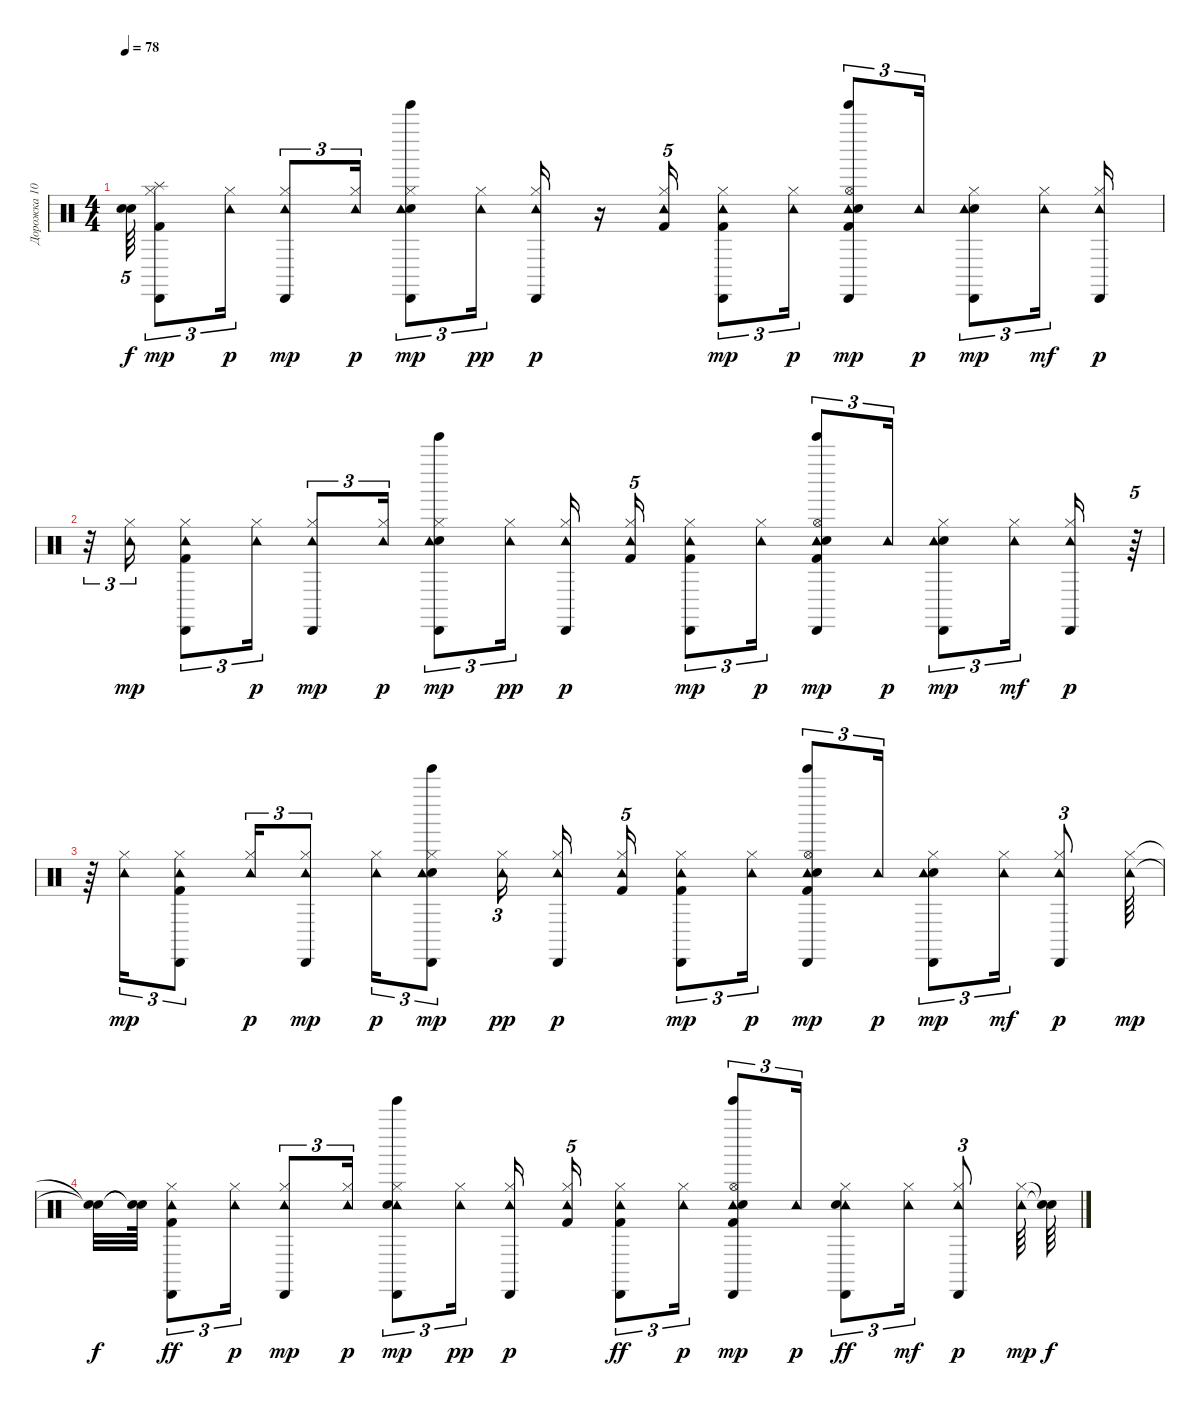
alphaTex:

\track ("Дорожка 10" "Дорожка 10") {instrument percussion}
\staff
\articulation defaults
\ts (4 4)
\tempo 78
\clef neutral
\ks c
("Snare (hit)"{t} "Snare (hit)"{t}).64{tu (5 4) dy f} ("Kick (hit) 2" "Splash (hit)" "Cabasa (hit)" "Hi-Hat (closed)").8{tu (3 2) dy mp} ("Tambourine (hit)" "Hi-Hat (closed)").16{tu (3 2) dy p} ("Cabasa (hit)" "Tambourine (hit)" "Hi-Hat (closed)").8{tu (3 2) dy mp} ("Tambourine (hit)" "Hi-Hat (closed)").16{tu (3 2) dy p} ("Snare (hit) 2" "Cabasa (hit)" "Tambourine (hit)" "Hi-Hat (closed)" "Tinkle Bell (hit)").8{tu (3 2) dy mp} ("Tambourine (hit)" "Hi-Hat (closed)").16{tu (3 2) dy pp} ("Cabasa (hit)" "Tambourine (hit)" "Hi-Hat (closed)").16{dy p} r.16 ("Kick (hit) 2" "Tambourine (hit)" "Hi-Hat (closed)").16{tu (5 4)} ("Kick (hit) 2" "Cabasa (hit)" "Tambourine (hit)" "Hi-Hat (closed)").8{tu (3 2) dy mp} ("Tambourine (hit)" "Hi-Hat (closed)").16{tu (3 2) dy p} ("Kick (hit) 2" "Hi-Hat (open)" "Cabasa (hit)" "Tambourine (hit)" "Electric Snare (hit)" "Tinkle Bell (hit)").8{tu (3 2) dy mp} "Tambourine (hit)".16{tu (3 2) dy p} ("Snare (hit) 2" "Cabasa (hit)" "Tambourine (hit)" "Hi-Hat (closed)").8{tu (3 2) dy mp} ("Tambourine (hit)" "Hi-Hat (closed)").16{tu (3 2) dy mf} ("Cabasa (hit)" "Tambourine (hit)" "Hi-Hat (closed)").16{dy p} |
r.32{tu (3 2)} ("Tambourine (hit)" "Hi-Hat (closed)").16{tu (3 2) dy mp} ("Kick (hit) 2" "Hi-Hat (closed)" "Cabasa (hit)" "Tambourine (hit)").8{tu (3 2)} ("Hi-Hat (closed)" "Tambourine (hit)").16{tu (3 2) dy p} ("Hi-Hat (closed)" "Cabasa (hit)" "Tambourine (hit)").8{tu (3 2) dy mp} ("Hi-Hat (closed)" "Tambourine (hit)").16{tu (3 2) dy p} ("Snare (hit) 2" "Hi-Hat (closed)" "Cabasa (hit)" "Tambourine (hit)" "Tinkle Bell (hit)").8{tu (3 2) dy mp} ("Hi-Hat (closed)" "Tambourine (hit)").16{tu (3 2) dy pp} ("Hi-Hat (closed)" "Cabasa (hit)" "Tambourine (hit)").16{dy p} ("Kick (hit) 2" "Hi-Hat (closed)" "Tambourine (hit)").16{tu (5 4)} ("Kick (hit) 2" "Hi-Hat (closed)" "Cabasa (hit)" "Tambourine (hit)").8{tu (3 2) dy mp} ("Hi-Hat (closed)" "Tambourine (hit)").16{tu (3 2) dy p} ("Kick (hit) 2" "Hi-Hat (open)" "Cabasa (hit)" "Tambourine (hit)" "Electric Snare (hit)" "Tinkle Bell (hit)").8{tu (3 2) dy mp} "Tambourine (hit)".16{tu (3 2) dy p} ("Snare (hit) 2" "Hi-Hat (closed)" "Cabasa (hit)" "Tambourine (hit)").8{tu (3 2) dy mp} ("Hi-Hat (closed)" "Tambourine (hit)").16{tu (3 2) dy mf} ("Hi-Hat (closed)" "Cabasa (hit)" "Tambourine (hit)").16{dy p} r.64{tu (5 4)} |
r.64 ("Hi-Hat (closed)" "Tambourine (hit)").16{tu (3 2) dy mp} ("Kick (hit) 2" "Hi-Hat (closed)" "Cabasa (hit)" "Tambourine (hit)").8{tu (3 2)} ("Hi-Hat (closed)" "Tambourine (hit)").16{tu (3 2) dy p} ("Hi-Hat (closed)" "Cabasa (hit)" "Tambourine (hit)").8{tu (3 2) dy mp} ("Hi-Hat (closed)" "Tambourine (hit)").16{tu (3 2) dy p} ("Snare (hit) 2" "Hi-Hat (closed)" "Cabasa (hit)" "Tambourine (hit)" "Tinkle Bell (hit)").8{tu (3 2) dy mp} ("Hi-Hat (closed)" "Tambourine (hit)").16{tu (3 2) dy pp beam splitsecondary} ("Hi-Hat (closed)" "Cabasa (hit)" "Tambourine (hit)").16{dy p} ("Kick (hit) 2" "Hi-Hat (closed)" "Tambourine (hit)").16{tu (5 4)} ("Kick (hit) 2" "Hi-Hat (closed)" "Cabasa (hit)" "Tambourine (hit)").8{tu (3 2) dy mp} ("Hi-Hat (closed)" "Tambourine (hit)").16{tu (3 2) dy p} ("Kick (hit) 2" "Hi-Hat (open)" "Cabasa (hit)" "Tambourine (hit)" "Electric Snare (hit)" "Tinkle Bell (hit)").8{tu (3 2) dy mp} "Tambourine (hit)".16{tu (3 2) dy p} ("Snare (hit) 2" "Hi-Hat (closed)" "Cabasa (hit)" "Tambourine (hit)").8{tu (3 2) dy mp} ("Hi-Hat (closed)" "Tambourine (hit)").16{tu (3 2) dy mf} ("Hi-Hat (closed)" "Cabasa (hit)" "Tambourine (hit)").8{tu (3 2) dy p} ("Hi-Hat (closed)" "Tambourine (hit)").64{dy mp} |
("Snare (hit)"{t} "Snare (hit)"{t}).32{dy f} ("Snare (hit)"{t} "Snare (hit)"{t}).64 ("Cabasa (hit)" "Tambourine (hit)" "Hi-Hat (closed)" "Kick (hit) 2").8{tu (3 2) dy ff} ("Tambourine (hit)" "Hi-Hat (closed)").16{tu (3 2) dy p} ("Cabasa (hit)" "Tambourine (hit)" "Hi-Hat (closed)").8{tu (3 2) dy mp} ("Tambourine (hit)" "Hi-Hat (closed)").16{tu (3 2) dy p} ("Cabasa (hit)" "Tambourine (hit)" "Hi-Hat (closed)" "Snare (hit) 2" "Tinkle Bell (hit)").8{tu (3 2) dy mp} ("Tambourine (hit)" "Hi-Hat (closed)").16{tu (3 2) dy pp beam splitsecondary} ("Cabasa (hit)" "Tambourine (hit)" "Hi-Hat (closed)").16{dy p} ("Tambourine (hit)" "Hi-Hat (closed)" "Kick (hit) 2").16{tu (5 4)} ("Cabasa (hit)" "Tambourine (hit)" "Hi-Hat (closed)" "Kick (hit) 2").8{tu (3 2) dy ff} ("Tambourine (hit)" "Hi-Hat (closed)").16{tu (3 2) dy p} ("Cabasa (hit)" "Tambourine (hit)" "Electric Snare (hit)" "Kick (hit) 2" "Hi-Hat (open)" "Tinkle Bell (hit)").8{tu (3 2) dy mp} "Tambourine (hit)".16{tu (3 2) dy p} ("Cabasa (hit)" "Tambourine (hit)" "Hi-Hat (closed)" "Snare (hit) 2").8{tu (3 2) dy ff} ("Tambourine (hit)" "Hi-Hat (closed)").16{tu (3 2) dy mf} ("Cabasa (hit)" "Tambourine (hit)" "Hi-Hat (closed)").8{tu (3 2) dy p} ("Tambourine (hit)" "Hi-Hat (closed)").64{dy mp} ("Snare (hit)"{t} "Snare (hit)"{t}).64{dy f}
